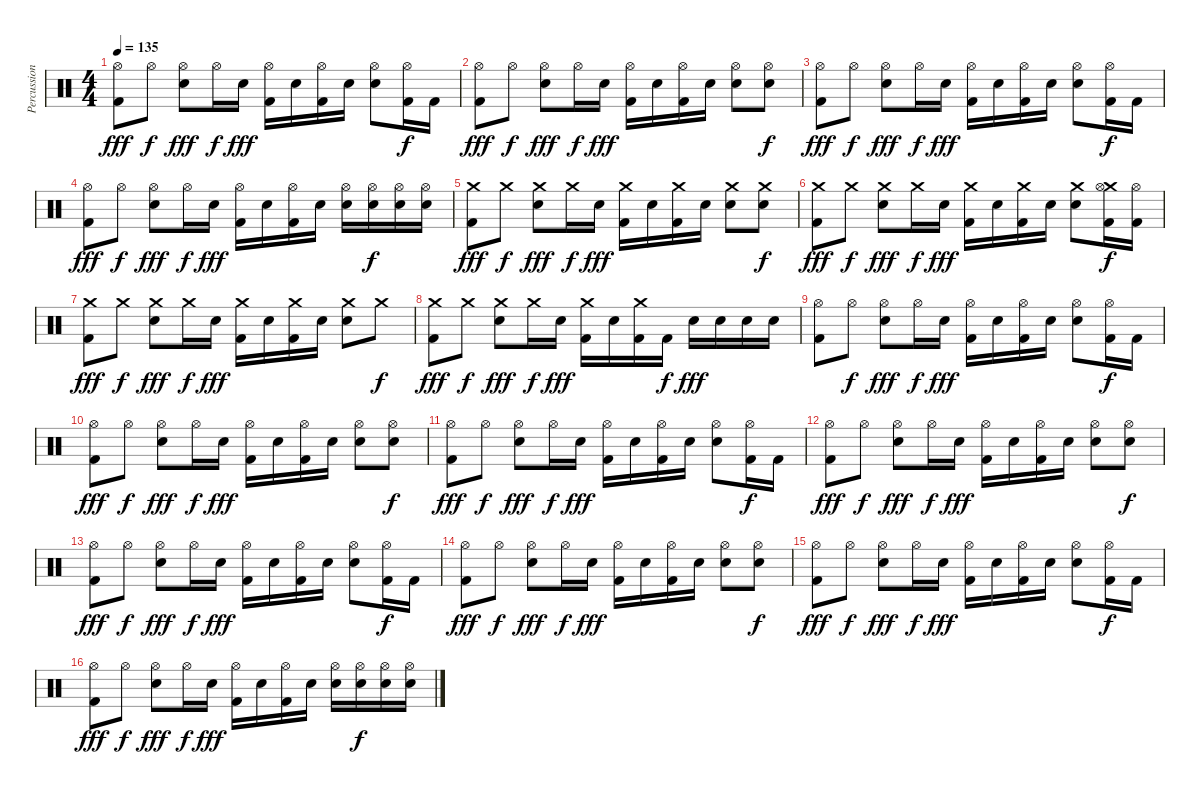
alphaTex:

\track ("Percussions" "Percussion") {instrument percussion}
\staff {score}
\articulation defaults
\ts (4 4)
\tempo 135
\clef neutral
\ks c
("Hi-Hat (open)" "Kick (hit) 2").8{dy fff} "Hi-Hat (open)".8{dy f} ("Hi-Hat (open)" "Electric Snare (hit)").8{dy fff} "Hi-Hat (open)".16{dy f} "Electric Snare (hit)".16{dy fff} ("Hi-Hat (open)" "Kick (hit) 2").16 "Electric Snare (hit)".16 ("Hi-Hat (open)" "Kick (hit) 2").16 "Electric Snare (hit)".16 ("Hi-Hat (open)" "Electric Snare (hit)").8 ("Hi-Hat (open)" "Kick (hit) 2").16{dy f} "Kick (hit) 2".16 |
("Hi-Hat (open)" "Kick (hit) 2").8{dy fff} "Hi-Hat (open)".8{dy f} ("Hi-Hat (open)" "Electric Snare (hit)").8{dy fff} "Hi-Hat (open)".16{dy f} "Electric Snare (hit)".16{dy fff} ("Hi-Hat (open)" "Kick (hit) 2").16 "Electric Snare (hit)".16 ("Hi-Hat (open)" "Kick (hit) 2").16 "Electric Snare (hit)".16 ("Hi-Hat (open)" "Electric Snare (hit)").8 ("Hi-Hat (open)" "Electric Snare (hit)").8{dy f} |
("Hi-Hat (open)" "Kick (hit) 2").8{dy fff} "Hi-Hat (open)".8{dy f} ("Hi-Hat (open)" "Electric Snare (hit)").8{dy fff} "Hi-Hat (open)".16{dy f} "Electric Snare (hit)".16{dy fff} ("Hi-Hat (open)" "Kick (hit) 2").16 "Electric Snare (hit)".16 ("Hi-Hat (open)" "Kick (hit) 2").16 "Electric Snare (hit)".16 ("Hi-Hat (open)" "Electric Snare (hit)").8 ("Hi-Hat (open)" "Kick (hit) 2").16{dy f} "Kick (hit) 2".16 |
("Hi-Hat (open)" "Kick (hit) 2").8{dy fff} "Hi-Hat (open)".8{dy f} ("Hi-Hat (open)" "Electric Snare (hit)").8{dy fff} "Hi-Hat (open)".16{dy f} "Electric Snare (hit)".16{dy fff} ("Hi-Hat (open)" "Kick (hit) 2").16 "Electric Snare (hit)".16 ("Hi-Hat (open)" "Kick (hit) 2").16 "Electric Snare (hit)".16 ("Hi-Hat (open)" "Electric Snare (hit)").16 ("Hi-Hat (open)" "Electric Snare (hit)").16{dy f} ("Hi-Hat (open)" "Electric Snare (hit)").16 ("Hi-Hat (open)" "Electric Snare (hit)").16 |
("Crash medium (hit)" "Kick (hit) 2").8{dy fff} "Crash medium (hit)".8{dy f} ("Crash medium (hit)" "Electric Snare (hit)").8{dy fff} "Crash medium (hit)".16{dy f} "Electric Snare (hit)".16{dy fff} ("Crash medium (hit)" "Kick (hit) 2").16 "Electric Snare (hit)".16 ("Crash medium (hit)" "Kick (hit) 2").16 "Electric Snare (hit)".16 ("Crash medium (hit)" "Electric Snare (hit)").8 ("Crash medium (hit)" "Electric Snare (hit)").8{dy f} |
("Crash medium (hit)" "Kick (hit) 2").8{dy fff} "Crash medium (hit)".8{dy f} ("Crash medium (hit)" "Electric Snare (hit)").8{dy fff} "Crash medium (hit)".16{dy f} "Electric Snare (hit)".16{dy fff} ("Crash medium (hit)" "Kick (hit) 2").16 "Electric Snare (hit)".16 ("Crash medium (hit)" "Kick (hit) 2").16 "Electric Snare (hit)".16 ("Crash medium (hit)" "Electric Snare (hit)").8 ("Crash medium (hit)" "Hi-Hat (open)" "Kick (hit) 2").16{dy f} ("Hi-Hat (open)" "Kick (hit) 2").16 |
("Crash medium (hit)" "Kick (hit) 2").8{dy fff} "Crash medium (hit)".8{dy f} ("Crash medium (hit)" "Electric Snare (hit)").8{dy fff} "Crash medium (hit)".16{dy f} "Electric Snare (hit)".16{dy fff} ("Crash medium (hit)" "Kick (hit) 2").16 "Electric Snare (hit)".16 ("Crash medium (hit)" "Kick (hit) 2").16 "Electric Snare (hit)".16 ("Crash medium (hit)" "Electric Snare (hit)").8 "Crash medium (hit)".8{dy f} |
("Crash medium (hit)" "Kick (hit) 2").8{dy fff} "Crash medium (hit)".8{dy f} ("Crash medium (hit)" "Electric Snare (hit)").8{dy fff} "Crash medium (hit)".16{dy f} "Electric Snare (hit)".16{dy fff} ("Crash medium (hit)" "Kick (hit) 2").16 "Electric Snare (hit)".16 ("Crash medium (hit)" "Kick (hit) 2").16 "Kick (hit) 2".16{dy f} "Electric Snare (hit)".16{dy fff} "Electric Snare (hit)".16 "Electric Snare (hit)".16 "Electric Snare (hit)".16 |
("Hi-Hat (open)" "Kick (hit) 2").8 "Hi-Hat (open)".8{dy f} ("Hi-Hat (open)" "Electric Snare (hit)").8{dy fff} "Hi-Hat (open)".16{dy f} "Electric Snare (hit)".16{dy fff} ("Hi-Hat (open)" "Kick (hit) 2").16 "Electric Snare (hit)".16 ("Hi-Hat (open)" "Kick (hit) 2").16 "Electric Snare (hit)".16 ("Hi-Hat (open)" "Electric Snare (hit)").8 ("Hi-Hat (open)" "Kick (hit) 2").16{dy f} "Kick (hit) 2".16 |
("Hi-Hat (open)" "Kick (hit) 2").8{dy fff} "Hi-Hat (open)".8{dy f} ("Hi-Hat (open)" "Electric Snare (hit)").8{dy fff} "Hi-Hat (open)".16{dy f} "Electric Snare (hit)".16{dy fff} ("Hi-Hat (open)" "Kick (hit) 2").16 "Electric Snare (hit)".16 ("Hi-Hat (open)" "Kick (hit) 2").16 "Electric Snare (hit)".16 ("Hi-Hat (open)" "Electric Snare (hit)").8 ("Hi-Hat (open)" "Electric Snare (hit)").8{dy f} |
("Hi-Hat (open)" "Kick (hit) 2").8{dy fff} "Hi-Hat (open)".8{dy f} ("Hi-Hat (open)" "Electric Snare (hit)").8{dy fff} "Hi-Hat (open)".16{dy f} "Electric Snare (hit)".16{dy fff} ("Hi-Hat (open)" "Kick (hit) 2").16 "Electric Snare (hit)".16 ("Hi-Hat (open)" "Kick (hit) 2").16 "Electric Snare (hit)".16 ("Hi-Hat (open)" "Electric Snare (hit)").8 ("Hi-Hat (open)" "Kick (hit) 2").16{dy f} "Kick (hit) 2".16 |
("Hi-Hat (open)" "Kick (hit) 2").8{dy fff} "Hi-Hat (open)".8{dy f} ("Hi-Hat (open)" "Electric Snare (hit)").8{dy fff} "Hi-Hat (open)".16{dy f} "Electric Snare (hit)".16{dy fff} ("Hi-Hat (open)" "Kick (hit) 2").16 "Electric Snare (hit)".16 ("Hi-Hat (open)" "Kick (hit) 2").16 "Electric Snare (hit)".16 ("Hi-Hat (open)" "Electric Snare (hit)").8 ("Hi-Hat (open)" "Electric Snare (hit)").8{dy f} |
("Hi-Hat (open)" "Kick (hit) 2").8{dy fff} "Hi-Hat (open)".8{dy f} ("Hi-Hat (open)" "Electric Snare (hit)").8{dy fff} "Hi-Hat (open)".16{dy f} "Electric Snare (hit)".16{dy fff} ("Hi-Hat (open)" "Kick (hit) 2").16 "Electric Snare (hit)".16 ("Hi-Hat (open)" "Kick (hit) 2").16 "Electric Snare (hit)".16 ("Hi-Hat (open)" "Electric Snare (hit)").8 ("Hi-Hat (open)" "Kick (hit) 2").16{dy f} "Kick (hit) 2".16 |
("Hi-Hat (open)" "Kick (hit) 2").8{dy fff} "Hi-Hat (open)".8{dy f} ("Hi-Hat (open)" "Electric Snare (hit)").8{dy fff} "Hi-Hat (open)".16{dy f} "Electric Snare (hit)".16{dy fff} ("Hi-Hat (open)" "Kick (hit) 2").16 "Electric Snare (hit)".16 ("Hi-Hat (open)" "Kick (hit) 2").16 "Electric Snare (hit)".16 ("Hi-Hat (open)" "Electric Snare (hit)").8 ("Hi-Hat (open)" "Electric Snare (hit)").8{dy f} |
("Hi-Hat (open)" "Kick (hit) 2").8{dy fff} "Hi-Hat (open)".8{dy f} ("Hi-Hat (open)" "Electric Snare (hit)").8{dy fff} "Hi-Hat (open)".16{dy f} "Electric Snare (hit)".16{dy fff} ("Hi-Hat (open)" "Kick (hit) 2").16 "Electric Snare (hit)".16 ("Hi-Hat (open)" "Kick (hit) 2").16 "Electric Snare (hit)".16 ("Hi-Hat (open)" "Electric Snare (hit)").8 ("Hi-Hat (open)" "Kick (hit) 2").16{dy f} "Kick (hit) 2".16 |
("Hi-Hat (open)" "Kick (hit) 2").8{dy fff} "Hi-Hat (open)".8{dy f} ("Hi-Hat (open)" "Electric Snare (hit)").8{dy fff} "Hi-Hat (open)".16{dy f} "Electric Snare (hit)".16{dy fff} ("Hi-Hat (open)" "Kick (hit) 2").16 "Electric Snare (hit)".16 ("Hi-Hat (open)" "Kick (hit) 2").16 "Electric Snare (hit)".16 ("Hi-Hat (open)" "Electric Snare (hit)").16 ("Hi-Hat (open)" "Electric Snare (hit)").16{dy f} ("Hi-Hat (open)" "Electric Snare (hit)").16 ("Hi-Hat (open)" "Electric Snare (hit)").16
